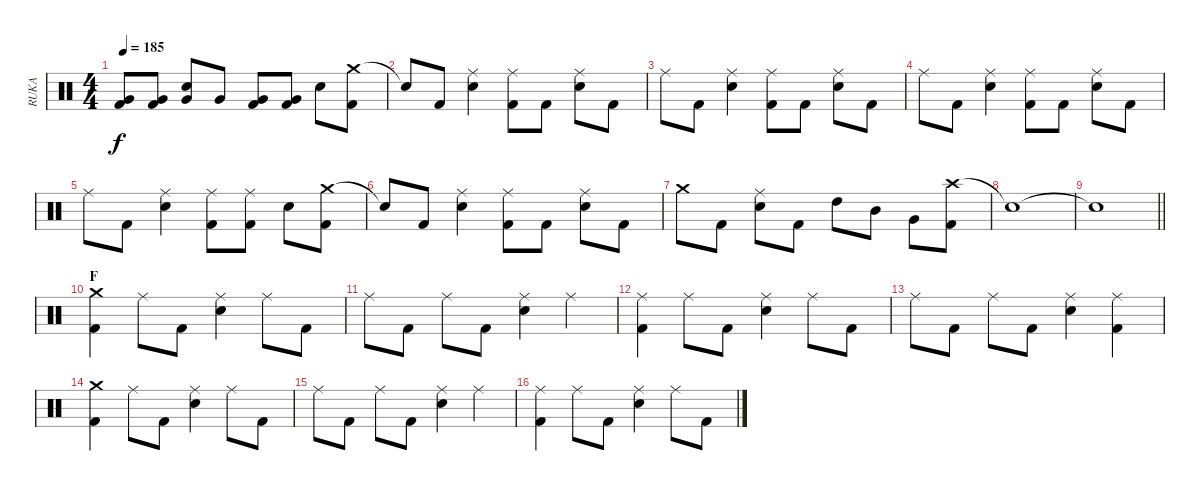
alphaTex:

\track ("RUKA" "RUKA") {instrument percussion}
\staff {score}
\articulation defaults
\ts (4 4)
\tempo 185
\clef neutral
\ks c
("Very Low Tom (hit)" "Kick (hit) 2").8{dy f} ("Very Low Tom (hit)" "Kick (hit) 2").8 ("Electric Snare (hit)" "Very Low Tom (hit)").8 "Very Low Tom (hit)".8 ("Very Low Tom (hit)" "Kick (hit) 2").8 ("Very Low Tom (hit)" "Kick (hit) 2").8 "Electric Snare (hit)".8 ("Crash medium (hit)" "Kick (hit) 2").8 |
"Snare (hit)"{t}.8 "Kick (hit) 2".8 ("Ride (middle)" "Electric Snare (hit)").4 ("Ride (middle)" "Kick (hit) 2").8 "Kick (hit) 2".8 ("Ride (middle)" "Electric Snare (hit)").8 "Kick (hit) 2".8 |
"Ride (middle)".8 "Kick (hit) 2".8 ("Ride (middle)" "Electric Snare (hit)").4 ("Ride (middle)" "Kick (hit) 2").8 "Kick (hit) 2".8 ("Ride (middle)" "Electric Snare (hit)").8 "Kick (hit) 2".8 |
"Ride (middle)".8 "Kick (hit) 2".8 ("Ride (middle)" "Electric Snare (hit)").4 ("Ride (middle)" "Kick (hit) 2").8 "Kick (hit) 2".8 ("Ride (middle)" "Electric Snare (hit)").8 "Kick (hit) 2".8 |
"Ride (middle)".8 "Kick (hit) 2".8 ("Ride (middle)" "Electric Snare (hit)").4 ("Ride (middle)" "Kick (hit) 2").8 ("Ride (middle)" "Kick (hit) 2").8 "Electric Snare (hit)".8 ("Crash medium (hit)" "Kick (hit) 2").8 |
"Snare (hit)"{t}.8 "Kick (hit) 2".8 ("Ride (middle)" "Electric Snare (hit)").4 ("Ride (middle)" "Kick (hit) 2").8 "Kick (hit) 2".8 ("Ride (middle)" "Electric Snare (hit)").8 "Kick (hit) 2".8 |
"Crash medium (hit)".8 "Kick (hit) 2".8 ("Ride (middle)" "Electric Snare (hit)").8 "Kick (hit) 2".8 "High Tom (hit)".8 "Mid Tom (hit)".8 "Very Low Tom (hit)".8 ("Crash high (hit)" "Kick (hit) 2").8 |
"Snare (hit)"{t}.1 |
\barLineRight lightlight "Snare (hit)"{t}.1
|
\section ("" "F")
("Crash medium (hit)" "Kick (hit) 2").4 "Ride (middle)".8 "Kick (hit) 2".8 ("Ride (middle)" "Electric Snare (hit)").4 "Ride (middle)".8 "Kick (hit) 2".8 |
"Ride (middle)".8 "Kick (hit) 2".8 "Ride (middle)".8 "Kick (hit) 2".8 ("Ride (middle)" "Electric Snare (hit)").4 "Ride (middle)".4 |
("Ride (middle)" "Kick (hit) 2").4 "Ride (middle)".8 "Kick (hit) 2".8 ("Ride (middle)" "Electric Snare (hit)").4 "Ride (middle)".8 "Kick (hit) 2".8 |
"Ride (middle)".8 "Kick (hit) 2".8 "Ride (middle)".8 "Kick (hit) 2".8 ("Ride (middle)" "Electric Snare (hit)").4 ("Ride (middle)" "Kick (hit) 2").4 |
("Crash medium (hit)" "Kick (hit) 2").4 "Ride (middle)".8 "Kick (hit) 2".8 ("Ride (middle)" "Electric Snare (hit)").4 "Ride (middle)".8 "Kick (hit) 2".8 |
"Ride (middle)".8 "Kick (hit) 2".8 "Ride (middle)".8 "Kick (hit) 2".8 ("Ride (middle)" "Electric Snare (hit)").4 "Ride (middle)".4 |
("Ride (middle)" "Kick (hit) 2").4 "Ride (middle)".8 "Kick (hit) 2".8 ("Ride (middle)" "Electric Snare (hit)").4 "Ride (middle)".8 "Kick (hit) 2".8
